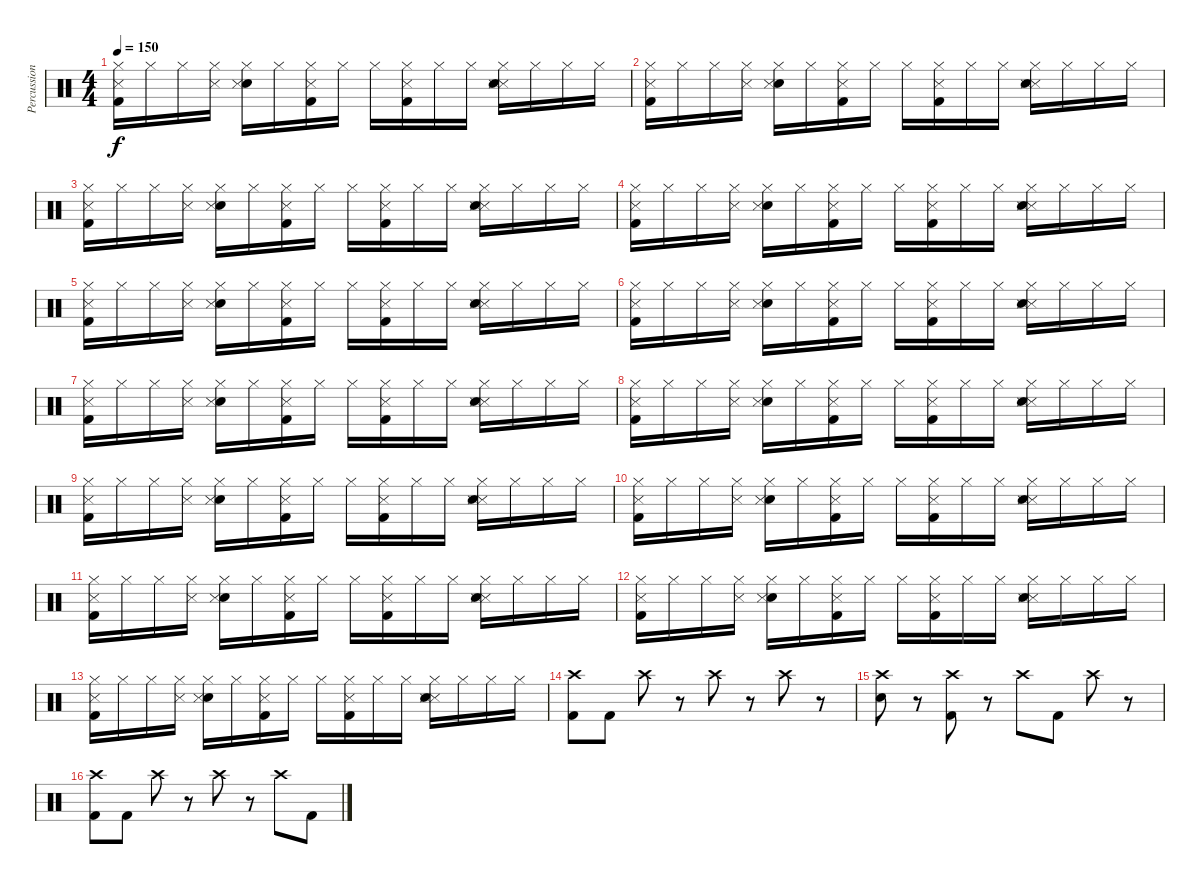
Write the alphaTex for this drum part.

\track ("Percussion" "Percussion") {instrument percussion}
\staff {score}
\articulation defaults
\ts (4 4)
\tempo 150
\clef neutral
\ks c
("Metronome (hit)" "Hi-Hat (closed)" "Kick (hit) 2").16{dy f} "Hi-Hat (closed)".16 "Hi-Hat (closed)".16 ("Metronome (hit)" "Hi-Hat (closed)").16 ("Hi-Hat (closed)" "Electric Snare (hit)" "Snare (side stick) 3").16 "Hi-Hat (closed)".16 ("Metronome (hit)" "Hi-Hat (closed)" "Kick (hit) 2").16 "Hi-Hat (closed)".16 "Hi-Hat (closed)".16 ("Metronome (hit)" "Hi-Hat (closed)" "Kick (hit) 2").16 "Hi-Hat (closed)".16 "Hi-Hat (closed)".16 ("Metronome (hit)" "Hi-Hat (closed)" "Electric Snare (hit)" "Snare (side stick) 3").16 "Hi-Hat (closed)".16 "Hi-Hat (closed)".16 "Hi-Hat (closed)".16 |
("Metronome (hit)" "Hi-Hat (closed)" "Kick (hit) 2").16 "Hi-Hat (closed)".16 "Hi-Hat (closed)".16 ("Metronome (hit)" "Hi-Hat (closed)").16 ("Hi-Hat (closed)" "Electric Snare (hit)" "Snare (side stick) 3").16 "Hi-Hat (closed)".16 ("Metronome (hit)" "Hi-Hat (closed)" "Kick (hit) 2").16 "Hi-Hat (closed)".16 "Hi-Hat (closed)".16 ("Metronome (hit)" "Hi-Hat (closed)" "Kick (hit) 2").16 "Hi-Hat (closed)".16 "Hi-Hat (closed)".16 ("Metronome (hit)" "Hi-Hat (closed)" "Electric Snare (hit)" "Snare (side stick) 3").16 "Hi-Hat (closed)".16 "Hi-Hat (closed)".16 "Hi-Hat (closed)".16 |
("Metronome (hit)" "Hi-Hat (closed)" "Kick (hit) 2").16 "Hi-Hat (closed)".16 "Hi-Hat (closed)".16 ("Metronome (hit)" "Hi-Hat (closed)").16 ("Hi-Hat (closed)" "Electric Snare (hit)" "Snare (side stick) 3").16 "Hi-Hat (closed)".16 ("Metronome (hit)" "Hi-Hat (closed)" "Kick (hit) 2").16 "Hi-Hat (closed)".16 "Hi-Hat (closed)".16 ("Metronome (hit)" "Hi-Hat (closed)" "Kick (hit) 2").16 "Hi-Hat (closed)".16 "Hi-Hat (closed)".16 ("Metronome (hit)" "Hi-Hat (closed)" "Electric Snare (hit)" "Snare (side stick) 3").16 "Hi-Hat (closed)".16 "Hi-Hat (closed)".16 "Hi-Hat (closed)".16 |
("Metronome (hit)" "Hi-Hat (closed)" "Kick (hit) 2").16 "Hi-Hat (closed)".16 "Hi-Hat (closed)".16 ("Metronome (hit)" "Hi-Hat (closed)").16 ("Hi-Hat (closed)" "Electric Snare (hit)" "Snare (side stick) 3").16 "Hi-Hat (closed)".16 ("Metronome (hit)" "Hi-Hat (closed)" "Kick (hit) 2").16 "Hi-Hat (closed)".16 "Hi-Hat (closed)".16 ("Metronome (hit)" "Hi-Hat (closed)" "Kick (hit) 2").16 "Hi-Hat (closed)".16 "Hi-Hat (closed)".16 ("Metronome (hit)" "Hi-Hat (closed)" "Electric Snare (hit)" "Snare (side stick) 3").16 "Hi-Hat (closed)".16 "Hi-Hat (closed)".16 "Hi-Hat (closed)".16 |
("Metronome (hit)" "Hi-Hat (closed)" "Kick (hit) 2").16 "Hi-Hat (closed)".16 "Hi-Hat (closed)".16 ("Metronome (hit)" "Hi-Hat (closed)").16 ("Hi-Hat (closed)" "Electric Snare (hit)" "Snare (side stick) 3").16 "Hi-Hat (closed)".16 ("Metronome (hit)" "Hi-Hat (closed)" "Kick (hit) 2").16 "Hi-Hat (closed)".16 "Hi-Hat (closed)".16 ("Metronome (hit)" "Hi-Hat (closed)" "Kick (hit) 2").16 "Hi-Hat (closed)".16 "Hi-Hat (closed)".16 ("Metronome (hit)" "Hi-Hat (closed)" "Electric Snare (hit)" "Snare (side stick) 3").16 "Hi-Hat (closed)".16 "Hi-Hat (closed)".16 "Hi-Hat (closed)".16 |
("Metronome (hit)" "Hi-Hat (closed)" "Kick (hit) 2").16 "Hi-Hat (closed)".16 "Hi-Hat (closed)".16 ("Metronome (hit)" "Hi-Hat (closed)").16 ("Hi-Hat (closed)" "Electric Snare (hit)" "Snare (side stick) 3").16 "Hi-Hat (closed)".16 ("Metronome (hit)" "Hi-Hat (closed)" "Kick (hit) 2").16 "Hi-Hat (closed)".16 "Hi-Hat (closed)".16 ("Metronome (hit)" "Hi-Hat (closed)" "Kick (hit) 2").16 "Hi-Hat (closed)".16 "Hi-Hat (closed)".16 ("Metronome (hit)" "Hi-Hat (closed)" "Electric Snare (hit)" "Snare (side stick) 3").16 "Hi-Hat (closed)".16 "Hi-Hat (closed)".16 "Hi-Hat (closed)".16 |
("Metronome (hit)" "Hi-Hat (closed)" "Kick (hit) 2").16 "Hi-Hat (closed)".16 "Hi-Hat (closed)".16 ("Metronome (hit)" "Hi-Hat (closed)").16 ("Hi-Hat (closed)" "Electric Snare (hit)" "Snare (side stick) 3").16 "Hi-Hat (closed)".16 ("Metronome (hit)" "Hi-Hat (closed)" "Kick (hit) 2").16 "Hi-Hat (closed)".16 "Hi-Hat (closed)".16 ("Metronome (hit)" "Hi-Hat (closed)" "Kick (hit) 2").16 "Hi-Hat (closed)".16 "Hi-Hat (closed)".16 ("Metronome (hit)" "Hi-Hat (closed)" "Electric Snare (hit)" "Snare (side stick) 3").16 "Hi-Hat (closed)".16 "Hi-Hat (closed)".16 "Hi-Hat (closed)".16 |
("Metronome (hit)" "Hi-Hat (closed)" "Kick (hit) 2").16 "Hi-Hat (closed)".16 "Hi-Hat (closed)".16 ("Metronome (hit)" "Hi-Hat (closed)").16 ("Hi-Hat (closed)" "Electric Snare (hit)" "Snare (side stick) 3").16 "Hi-Hat (closed)".16 ("Metronome (hit)" "Hi-Hat (closed)" "Kick (hit) 2").16 "Hi-Hat (closed)".16 "Hi-Hat (closed)".16 ("Metronome (hit)" "Hi-Hat (closed)" "Kick (hit) 2").16 "Hi-Hat (closed)".16 "Hi-Hat (closed)".16 ("Metronome (hit)" "Hi-Hat (closed)" "Electric Snare (hit)" "Snare (side stick) 3").16 "Hi-Hat (closed)".16 "Hi-Hat (closed)".16 "Hi-Hat (closed)".16 |
("Metronome (hit)" "Hi-Hat (closed)" "Kick (hit) 2").16 "Hi-Hat (closed)".16 "Hi-Hat (closed)".16 ("Metronome (hit)" "Hi-Hat (closed)").16 ("Hi-Hat (closed)" "Electric Snare (hit)" "Snare (side stick) 3").16 "Hi-Hat (closed)".16 ("Metronome (hit)" "Hi-Hat (closed)" "Kick (hit) 2").16 "Hi-Hat (closed)".16 "Hi-Hat (closed)".16 ("Metronome (hit)" "Hi-Hat (closed)" "Kick (hit) 2").16 "Hi-Hat (closed)".16 "Hi-Hat (closed)".16 ("Metronome (hit)" "Hi-Hat (closed)" "Electric Snare (hit)" "Snare (side stick) 3").16 "Hi-Hat (closed)".16 "Hi-Hat (closed)".16 "Hi-Hat (closed)".16 |
("Metronome (hit)" "Hi-Hat (closed)" "Kick (hit) 2").16 "Hi-Hat (closed)".16 "Hi-Hat (closed)".16 ("Metronome (hit)" "Hi-Hat (closed)").16 ("Hi-Hat (closed)" "Electric Snare (hit)" "Snare (side stick) 3").16 "Hi-Hat (closed)".16 ("Metronome (hit)" "Hi-Hat (closed)" "Kick (hit) 2").16 "Hi-Hat (closed)".16 "Hi-Hat (closed)".16 ("Metronome (hit)" "Hi-Hat (closed)" "Kick (hit) 2").16 "Hi-Hat (closed)".16 "Hi-Hat (closed)".16 ("Metronome (hit)" "Hi-Hat (closed)" "Electric Snare (hit)" "Snare (side stick) 3").16 "Hi-Hat (closed)".16 "Hi-Hat (closed)".16 "Hi-Hat (closed)".16 |
("Metronome (hit)" "Hi-Hat (closed)" "Kick (hit) 2").16 "Hi-Hat (closed)".16 "Hi-Hat (closed)".16 ("Metronome (hit)" "Hi-Hat (closed)").16 ("Hi-Hat (closed)" "Electric Snare (hit)" "Snare (side stick) 3").16 "Hi-Hat (closed)".16 ("Metronome (hit)" "Hi-Hat (closed)" "Kick (hit) 2").16 "Hi-Hat (closed)".16 "Hi-Hat (closed)".16 ("Metronome (hit)" "Hi-Hat (closed)" "Kick (hit) 2").16 "Hi-Hat (closed)".16 "Hi-Hat (closed)".16 ("Metronome (hit)" "Hi-Hat (closed)" "Electric Snare (hit)" "Snare (side stick) 3").16 "Hi-Hat (closed)".16 "Hi-Hat (closed)".16 "Hi-Hat (closed)".16 |
("Metronome (hit)" "Hi-Hat (closed)" "Kick (hit) 2").16 "Hi-Hat (closed)".16 "Hi-Hat (closed)".16 ("Metronome (hit)" "Hi-Hat (closed)").16 ("Hi-Hat (closed)" "Electric Snare (hit)" "Snare (side stick) 3").16 "Hi-Hat (closed)".16 ("Metronome (hit)" "Hi-Hat (closed)" "Kick (hit) 2").16 "Hi-Hat (closed)".16 "Hi-Hat (closed)".16 ("Metronome (hit)" "Hi-Hat (closed)" "Kick (hit) 2").16 "Hi-Hat (closed)".16 "Hi-Hat (closed)".16 ("Metronome (hit)" "Hi-Hat (closed)" "Electric Snare (hit)" "Snare (side stick) 3").16 "Hi-Hat (closed)".16 "Hi-Hat (closed)".16 "Hi-Hat (closed)".16 |
("Metronome (hit)" "Hi-Hat (closed)" "Kick (hit) 2").16 "Hi-Hat (closed)".16 "Hi-Hat (closed)".16 ("Metronome (hit)" "Hi-Hat (closed)").16 ("Hi-Hat (closed)" "Electric Snare (hit)" "Snare (side stick) 3").16 "Hi-Hat (closed)".16 ("Metronome (hit)" "Hi-Hat (closed)" "Kick (hit) 2").16 "Hi-Hat (closed)".16 "Hi-Hat (closed)".16 ("Metronome (hit)" "Hi-Hat (closed)" "Kick (hit) 2").16 "Hi-Hat (closed)".16 "Hi-Hat (closed)".16 ("Metronome (hit)" "Hi-Hat (closed)" "Electric Snare (hit)" "Snare (side stick) 3").16 "Hi-Hat (closed)".16 "Hi-Hat (closed)".16 "Hi-Hat (closed)".16 |
("Crash high (hit)" "Kick (hit) 2").8 "Kick (hit) 2".8 "Crash high (hit)".8 r.8 "Crash high (hit)".8 r.8 "Crash high (hit)".8 r.8 |
("Crash high (hit)" "Snare (hit) 2").8 r.8 ("Crash high (hit)" "Kick (hit) 2").8 r.8 "Crash high (hit)".8 "Kick (hit) 2".8 "Crash high (hit)".8 r.8 |
("Crash high (hit)" "Kick (hit) 2").8 "Kick (hit) 2".8 "Crash high (hit)".8 r.8 "Crash high (hit)".8 r.8 "Crash high (hit)".8 "Kick (hit) 2".8
